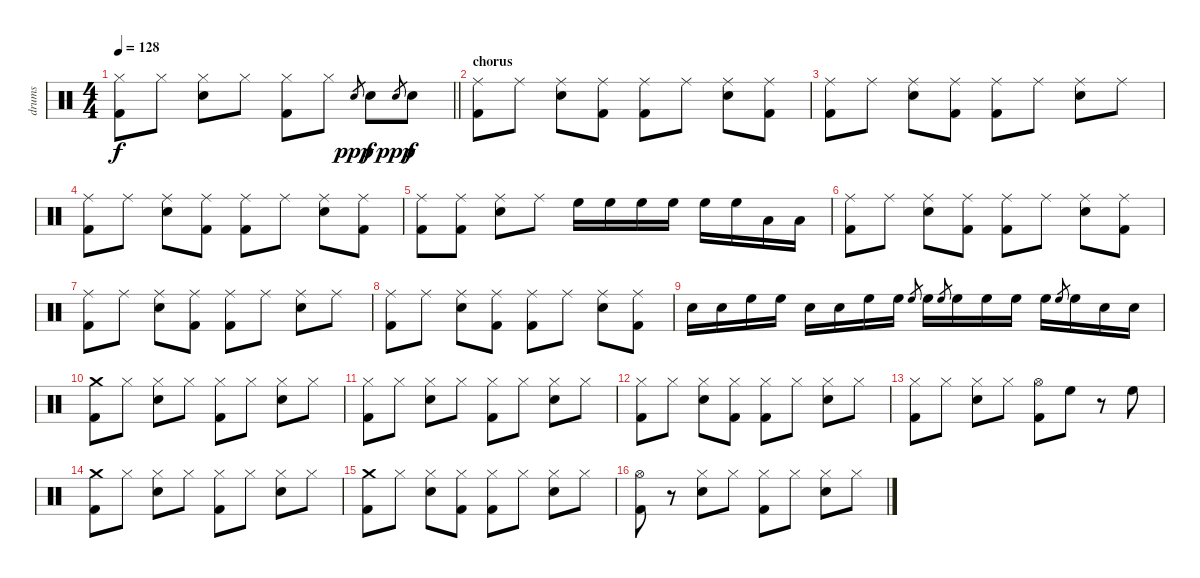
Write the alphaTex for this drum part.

\track ("drums" "drums") {instrument percussion}
\staff {score}
\articulation defaults
\ts (4 4)
\tempo 128
\clef neutral
\barLineRight lightlight
\ks c
("Hi-Hat (closed)" "Kick (hit) 2").8{dy f} "Hi-Hat (closed)".8 ("Hi-Hat (closed)" "Snare (hit) 2").8 "Hi-Hat (closed)".8 ("Hi-Hat (closed)" "Kick (hit) 2").8 "Hi-Hat (closed)".8 "Snare (hit) 2".8{gr dy ppp} "Snare (hit) 2".8{dy f} "Snare (hit) 2".8{gr dy ppp} "Snare (hit) 2".8{dy f} |
\section ("" "chorus")
("Ride (middle)" "Kick (hit) 2").8 "Ride (middle)".8 ("Ride (middle)" "Snare (hit) 2").8 ("Ride (middle)" "Kick (hit) 2").8 ("Ride (middle)" "Kick (hit) 2").8 "Ride (middle)".8 ("Ride (middle)" "Snare (hit) 2").8 ("Ride (middle)" "Kick (hit) 2").8 |
("Ride (middle)" "Kick (hit) 2").8 "Ride (middle)".8 ("Ride (middle)" "Snare (hit) 2").8 ("Ride (middle)" "Kick (hit) 2").8 ("Ride (middle)" "Kick (hit) 2").8 "Ride (middle)".8 ("Ride (middle)" "Snare (hit) 2").8 "Ride (middle)".8 |
("Ride (middle)" "Kick (hit) 2").8 "Ride (middle)".8 ("Ride (middle)" "Snare (hit) 2").8 ("Ride (middle)" "Kick (hit) 2").8 ("Ride (middle)" "Kick (hit) 2").8 "Ride (middle)".8 ("Ride (middle)" "Snare (hit) 2").8 ("Ride (middle)" "Kick (hit) 2").8 |
("Ride (middle)" "Kick (hit) 2").8 ("Ride (middle)" "Kick (hit) 2").8 ("Ride (middle)" "Snare (hit) 2").8 "Ride (middle)".8 "High Floor Tom (hit)".16 "High Floor Tom (hit)".16 "High Floor Tom (hit)".16 "High Floor Tom (hit)".16 "High Floor Tom (hit)".16 "High Floor Tom (hit)".16 "Low Floor Tom (hit)".16 "Low Floor Tom (hit)".16 |
("Ride (middle)" "Kick (hit) 2").8 "Ride (middle)".8 ("Ride (middle)" "Snare (hit) 2").8 ("Ride (middle)" "Kick (hit) 2").8 ("Ride (middle)" "Kick (hit) 2").8 "Ride (middle)".8 ("Ride (middle)" "Snare (hit) 2").8 ("Ride (middle)" "Kick (hit) 2").8 |
("Ride (middle)" "Kick (hit) 2").8 "Ride (middle)".8 ("Ride (middle)" "Snare (hit) 2").8 ("Ride (middle)" "Kick (hit) 2").8 ("Ride (middle)" "Kick (hit) 2").8 "Ride (middle)".8 ("Ride (middle)" "Snare (hit) 2").8 "Ride (middle)".8 |
("Ride (middle)" "Kick (hit) 2").8 "Ride (middle)".8 ("Ride (middle)" "Snare (hit) 2").8 ("Ride (middle)" "Kick (hit) 2").8 ("Ride (middle)" "Kick (hit) 2").8 "Ride (middle)".8 ("Ride (middle)" "Snare (hit) 2").8 ("Ride (middle)" "Kick (hit) 2").8 |
"Snare (hit) 2".16 "Snare (hit) 2".16 "High Floor Tom (hit)".16 "High Floor Tom (hit)".16 "Snare (hit) 2".16 "Snare (hit) 2".16 "High Floor Tom (hit)".16 "High Floor Tom (hit)".16 "High Floor Tom (hit)".8{gr} "High Floor Tom (hit)".16 "High Floor Tom (hit)".8{gr} "High Floor Tom (hit)".16 "High Floor Tom (hit)".16 "High Floor Tom (hit)".16 "High Floor Tom (hit)".16 "High Floor Tom (hit)".8{gr} "High Floor Tom (hit)".16 "Snare (hit) 2".16 "Snare (hit) 2".16 |
("Crash medium (hit)" "Kick (hit) 2").8 "Hi-Hat (closed)".8 ("Hi-Hat (closed)" "Snare (hit) 2").8 "Hi-Hat (closed)".8 ("Hi-Hat (closed)" "Kick (hit) 2").8 "Hi-Hat (closed)".8 ("Hi-Hat (closed)" "Snare (hit) 2").8 "Hi-Hat (closed)".8 |
("Hi-Hat (closed)" "Kick (hit) 2").8 "Hi-Hat (closed)".8 ("Hi-Hat (closed)" "Snare (hit) 2").8 "Hi-Hat (closed)".8 ("Hi-Hat (closed)" "Kick (hit) 2").8 "Hi-Hat (closed)".8 ("Hi-Hat (closed)" "Snare (hit) 2").8 "Hi-Hat (closed)".8 |
("Hi-Hat (closed)" "Kick (hit) 2").8 "Hi-Hat (closed)".8 ("Hi-Hat (closed)" "Snare (hit) 2").8 ("Hi-Hat (closed)" "Kick (hit) 2").8 ("Hi-Hat (closed)" "Kick (hit) 2").8 "Hi-Hat (closed)".8 ("Hi-Hat (closed)" "Snare (hit) 2").8 "Hi-Hat (closed)".8 |
("Hi-Hat (closed)" "Kick (hit) 2").8 "Hi-Hat (closed)".8 ("Hi-Hat (closed)" "Snare (hit) 2").8 "Hi-Hat (closed)".8 ("Hi-Hat (open)" "Kick (hit) 2").8 "High Floor Tom (hit)".8 r.8 "High Floor Tom (hit)".8 |
("Crash medium (hit)" "Kick (hit) 2").8 "Hi-Hat (closed)".8 ("Hi-Hat (closed)" "Snare (hit) 2").8 "Hi-Hat (closed)".8 ("Hi-Hat (closed)" "Kick (hit) 2").8 "Hi-Hat (closed)".8 ("Hi-Hat (closed)" "Snare (hit) 2").8 "Hi-Hat (closed)".8 |
("Crash medium (hit)" "Kick (hit) 2").8 "Hi-Hat (closed)".8 ("Hi-Hat (closed)" "Snare (hit) 2").8 ("Hi-Hat (closed)" "Kick (hit) 2").8 ("Hi-Hat (closed)" "Kick (hit) 2").8 "Hi-Hat (closed)".8 ("Hi-Hat (closed)" "Snare (hit) 2").8 "Hi-Hat (closed)".8 |
("Hi-Hat (open)" "Kick (hit) 2").8 r.8 ("Hi-Hat (closed)" "Snare (hit) 2").8 "Hi-Hat (closed)".8 ("Hi-Hat (closed)" "Kick (hit) 2").8 "Hi-Hat (closed)".8 ("Hi-Hat (closed)" "Snare (hit) 2").8 "Hi-Hat (closed)".8
